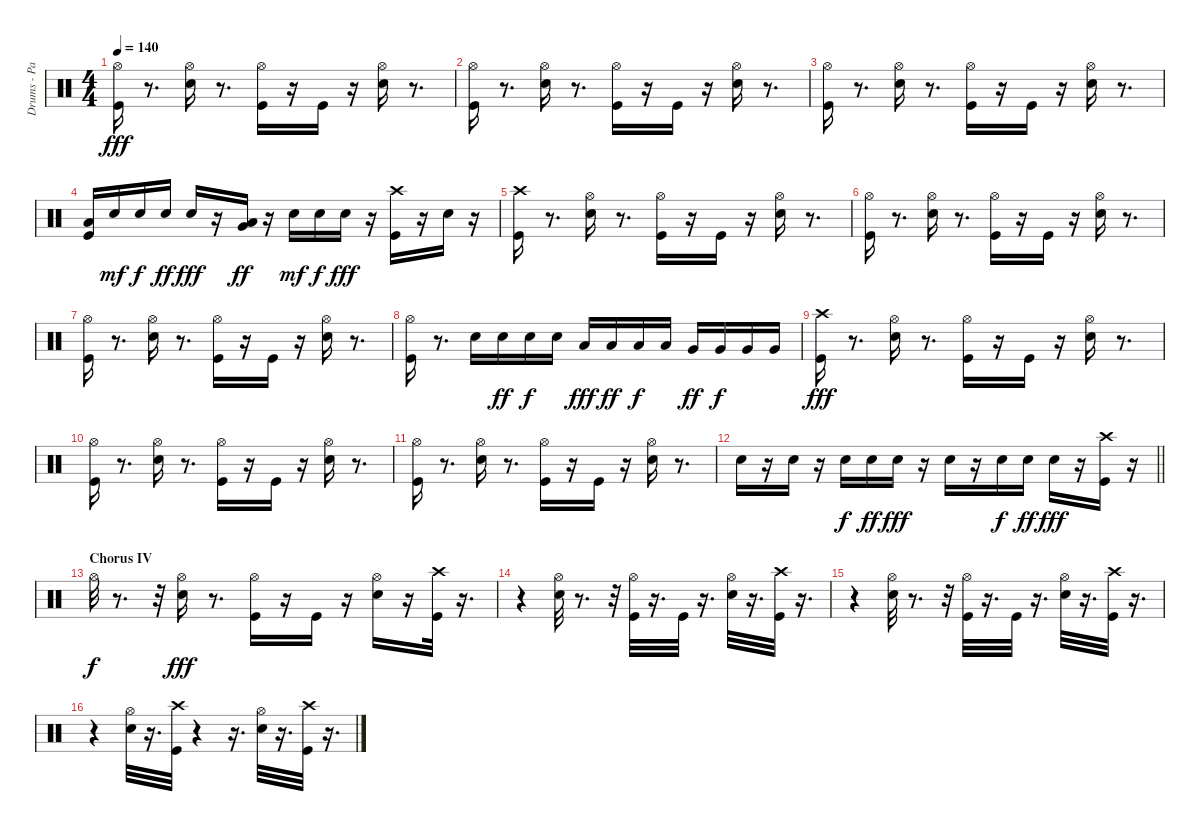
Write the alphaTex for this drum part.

\track ("Drums - Paice" "Drums - Pa") {instrument percussion}
\staff {score}
\articulation defaults
\ts (4 4)
\tempo 140
\clef neutral
\ks c
("Hi-Hat (open)" "Kick (hit)").16{dy fff} r.8{d} ("Hi-Hat (open)" "Snare (hit) 2").16 r.8{d} ("Hi-Hat (open)" "Kick (hit)").16 r.16 "Kick (hit)".16 r.16 ("Snare (hit) 2" "Hi-Hat (open)").16 r.8{d} |
("Kick (hit)" "Hi-Hat (open)").16 r.8{d} ("Snare (hit) 2" "Hi-Hat (open)").16 r.8{d} ("Hi-Hat (open)" "Kick (hit)").16 r.16 "Kick (hit)".16 r.16 ("Hi-Hat (open)" "Snare (hit) 2").16 r.8{d} |
("Kick (hit)" "Hi-Hat (open)").16 r.8{d} ("Snare (hit) 2" "Hi-Hat (open)").16 r.8{d} ("Kick (hit)" "Hi-Hat (open)").16 r.16 "Kick (hit)".16 r.16 ("Snare (hit) 2" "Hi-Hat (open)").16 r.8{d} |
("Kick (hit)" "Low Tom (hit)").16 "Snare (hit) 2".16{dy mf} "Snare (hit) 2".16{dy f} "Snare (hit) 2".16{dy ff} "Snare (hit) 2".16{dy fff} r.16 ("Low Tom (hit)" "Very Low Tom (hit)").16{dy ff} r.16 "Snare (hit) 2".16{dy mf} "Snare (hit) 2".16{dy f} "Snare (hit) 2".16{dy fff} r.16 ("Crash high (hit)" "Kick (hit)").16 r.16 "Snare (hit) 2".16 r.16 |
("Kick (hit)" "Crash high (hit)").16 r.8{d} ("Snare (hit) 2" "Hi-Hat (open)").16 r.8{d} ("Kick (hit)" "Hi-Hat (open)").16 r.16 "Kick (hit)".16 r.16 ("Hi-Hat (open)" "Snare (hit) 2").16 r.8{d} |
("Kick (hit)" "Hi-Hat (open)").16 r.8{d} ("Hi-Hat (open)" "Snare (hit) 2").16 r.8{d} ("Hi-Hat (open)" "Kick (hit)").16 r.16 "Kick (hit)".16 r.16 ("Snare (hit) 2" "Hi-Hat (open)").16 r.8{d} |
("Kick (hit)" "Hi-Hat (open)").16 r.8{d} ("Hi-Hat (open)" "Snare (hit) 2").16 r.8{d} ("Kick (hit)" "Hi-Hat (open)").16 r.16 "Kick (hit)".16 r.16 ("Hi-Hat (open)" "Snare (hit) 2").16 r.8{d} |
("Kick (hit)" "Hi-Hat (open)").16 r.8{d} "Snare (hit) 2".16 "Snare (hit) 2".16{dy ff} "Snare (hit) 2".16{dy f} "Snare (hit) 2".16 "Low Tom (hit)".16{dy fff} "Low Tom (hit)".16{dy ff} "Low Tom (hit)".16{dy f} "Low Tom (hit)".16 "Very Low Tom (hit)".16{dy ff} "Very Low Tom (hit)".16{dy f} "Very Low Tom (hit)".16 "Very Low Tom (hit)".16 |
("Crash high (hit)" "Kick (hit)").16{dy fff} r.8{d} ("Hi-Hat (open)" "Snare (hit) 2").16 r.8{d} ("Hi-Hat (open)" "Kick (hit)").16 r.16 "Kick (hit)".16 r.16 ("Snare (hit) 2" "Hi-Hat (open)").16 r.8{d} |
("Kick (hit)" "Hi-Hat (open)").16 r.8{d} ("Snare (hit) 2" "Hi-Hat (open)").16 r.8{d} ("Kick (hit)" "Hi-Hat (open)").16 r.16 "Kick (hit)".16 r.16 ("Snare (hit) 2" "Hi-Hat (open)").16 r.8{d} |
("Hi-Hat (open)" "Kick (hit)").16 r.8{d} ("Hi-Hat (open)" "Snare (hit) 2").16 r.8{d} ("Kick (hit)" "Hi-Hat (open)").16 r.16 "Kick (hit)".16 r.16 ("Hi-Hat (open)" "Snare (hit) 2").16 r.8{d} |
\barLineRight lightlight "Snare (hit) 2".16
r.16 "Snare (hit) 2".16 r.16 "Snare (hit) 2".16{dy f} "Snare (hit) 2".16{dy ff} "Snare (hit) 2".16{dy fff} r.16 "Snare (hit) 2".16 r.16 "Snare (hit) 2".16{dy f} "Snare (hit) 2".16{dy ff} "Snare (hit) 2".16{dy fff} r.16 ("Kick (hit)" "Crash high (hit)").16 r.16 |
\section ("" "Chorus IV")
"Hi-Hat (open)".32{dy f} r.8{d} r.32 ("Snare (hit) 2" "Hi-Hat (open)").16{dy fff} r.8{d} ("Kick (hit)" "Hi-Hat (open)").16 r.16 "Kick (hit)".16 r.16 ("Hi-Hat (open)" "Snare (hit) 2").16 r.16 ("Kick (hit)" "Crash high (hit)").32 r.16{d} |
r.4 ("Hi-Hat (open)" "Snare (hit) 2").32 r.8{d} r.32 ("Kick (hit)" "Hi-Hat (open)").32 r.16{d} "Kick (hit)".32 r.16{d} ("Snare (hit) 2" "Hi-Hat (open)").32 r.16{d} ("Crash high (hit)" "Kick (hit)").32 r.16{d} |
r.4 ("Snare (hit) 2" "Hi-Hat (open)").32 r.8{d} r.32 ("Kick (hit)" "Hi-Hat (open)").32 r.16{d} "Kick (hit)".32 r.16{d} ("Snare (hit) 2" "Hi-Hat (open)").32 r.16{d} ("Kick (hit)" "Crash high (hit)").32 r.16{d} |
r.4 ("Hi-Hat (open)" "Snare (hit) 2").32 r.16{d} ("Kick (hit)" "Crash high (hit)").32 r.4 r.16{d} ("Snare (hit) 2" "Hi-Hat (open)").32 r.16{d} ("Kick (hit)" "Crash high (hit)").32 r.16{d}
